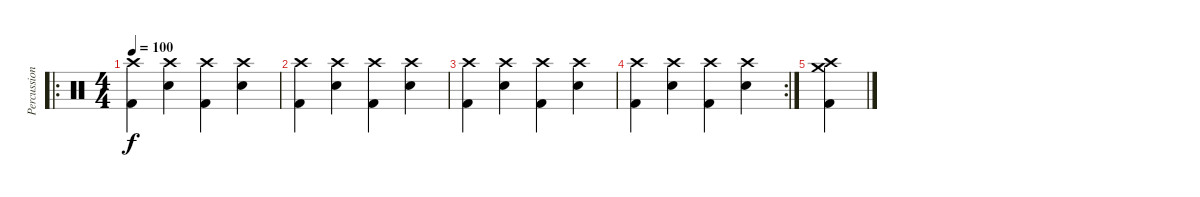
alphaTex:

\track ("Percussion" "Percussion") {instrument percussion}
\staff {score}
\articulation defaults
\ro
\ts (4 4)
\tempo 100
\clef neutral
\ks c
("Crash high (hit)" "Kick (hit) 2").4{dy f} ("Crash high (hit)" "Snare (hit) 2").4 ("Crash high (hit)" "Kick (hit) 2").4 ("Crash high (hit)" "Snare (hit) 2").4 |
("Crash high (hit)" "Kick (hit) 2").4 ("Crash high (hit)" "Snare (hit) 2").4 ("Crash high (hit)" "Kick (hit) 2").4 ("Crash high (hit)" "Snare (hit) 2").4 |
("Crash high (hit)" "Kick (hit) 2").4 ("Crash high (hit)" "Snare (hit) 2").4 ("Crash high (hit)" "Kick (hit) 2").4 ("Crash high (hit)" "Snare (hit) 2").4 |
\rc 2
("Crash high (hit)" "Kick (hit) 2").4 ("Crash high (hit)" "Snare (hit) 2").4 ("Crash high (hit)" "Kick (hit) 2").4 ("Crash high (hit)" "Snare (hit) 2").4 |
("Crash high (hit)" "Crash medium (hit)" "Kick (hit) 2").4
